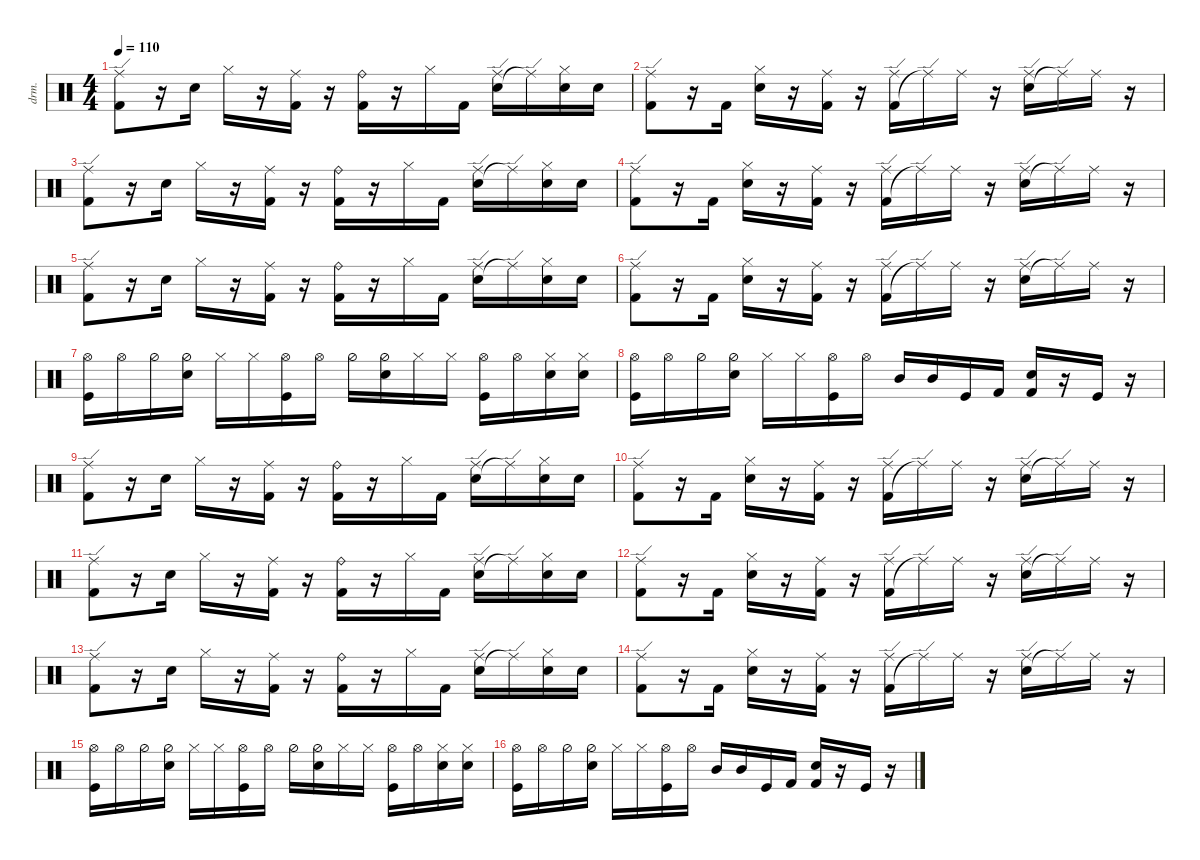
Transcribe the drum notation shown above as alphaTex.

\defaultSystemsLayout 4
\hideDynamics
\bracketExtendMode nobrackets
\otherSystemsTrackNameOrientation horizontal
\track ("Drumkit" "drm.") {instrument percussion}
\staff {score}
\articulation defaults
\ts (4 4)
\tempo 110
\clef neutral
\ks c
("Kick (hit) 2" "Ride (edge)").8{dy mf beam Down} r.16{beam Down} "Snare (hit) 2".16{beam Down} "Hi-Hat (closed)".16{beam Down} r.16{beam Down} ("Kick (hit) 2" "Ride (middle)").16{beam Down} r.16{beam Down} ("Kick (hit) 2" "Ride (bell)").16{beam Down} r.16{beam Down} "Hi-Hat (closed)".16{beam Down} "Kick (hit) 2".16{beam Down} ("Snare (hit) 2" "Ride (edge)").16{beam Down} "Ride (edge)"{t}.16{beam Down} ("Snare (hit) 2" "Hi-Hat (closed)").16{beam Down} "Snare (hit) 2".16{beam Down} |
("Kick (hit) 2" "Ride (edge)").8{beam Down} r.16{beam Down} "Kick (hit) 2".16{beam Down} ("Snare (hit) 2" "Hi-Hat (closed)").16{beam Down} r.16{beam Down} ("Kick (hit) 2" "Ride (middle)").16{beam Down} r.16{beam Down} ("Kick (hit) 2" "Ride (edge)").16{beam Down} "Ride (edge)"{t}.16{beam Down} "Ride (middle)".16{beam Down} r.16{beam Down} ("Snare (hit) 2" "Ride (edge)").16{beam Down} "Ride (edge)"{t}.16{beam Down} "Ride (middle)".16{beam Down} r.16{beam Down} |
("Kick (hit) 2" "Ride (edge)").8{beam Down} r.16{beam Down} "Snare (hit) 2".16{beam Down} "Hi-Hat (closed)".16{beam Down} r.16{beam Down} ("Kick (hit) 2" "Ride (middle)").16{beam Down} r.16{beam Down} ("Kick (hit) 2" "Ride (bell)").16{beam Down} r.16{beam Down} "Hi-Hat (closed)".16{beam Down} "Kick (hit) 2".16{beam Down} ("Snare (hit) 2" "Ride (edge)").16{beam Down} "Ride (edge)"{t}.16{beam Down} ("Snare (hit) 2" "Hi-Hat (closed)").16{beam Down} "Snare (hit) 2".16{beam Down} |
("Kick (hit) 2" "Ride (edge)").8{beam Down} r.16{beam Down} "Kick (hit) 2".16{beam Down} ("Snare (hit) 2" "Hi-Hat (closed)").16{beam Down} r.16{beam Down} ("Kick (hit) 2" "Ride (middle)").16{beam Down} r.16{beam Down} ("Kick (hit) 2" "Ride (edge)").16{beam Down} "Ride (edge)"{t}.16{beam Down} "Ride (middle)".16{beam Down} r.16{beam Down} ("Snare (hit) 2" "Ride (edge)").16{beam Down} "Ride (edge)"{t}.16{beam Down} "Ride (middle)".16{beam Down} r.16{beam Down} |
("Kick (hit) 2" "Ride (edge)").8{beam Down} r.16{beam Down} "Snare (hit) 2".16{beam Down} "Hi-Hat (closed)".16{beam Down} r.16{beam Down} ("Kick (hit) 2" "Ride (middle)").16{beam Down} r.16{beam Down} ("Kick (hit) 2" "Ride (bell)").16{beam Down} r.16{beam Down} "Hi-Hat (closed)".16{beam Down} "Kick (hit) 2".16{beam Down} ("Snare (hit) 2" "Ride (edge)").16{beam Down} "Ride (edge)"{t}.16{beam Down} ("Snare (hit) 2" "Hi-Hat (closed)").16{beam Down} "Snare (hit) 2".16{beam Down} |
("Kick (hit) 2" "Ride (edge)").8{beam Down} r.16{beam Down} "Kick (hit) 2".16{beam Down} ("Snare (hit) 2" "Hi-Hat (closed)").16{beam Down} r.16{beam Down} ("Kick (hit) 2" "Ride (middle)").16{beam Down} r.16{beam Down} ("Kick (hit) 2" "Ride (edge)").16{beam Down} "Ride (edge)"{t}.16{beam Down} "Ride (middle)".16{beam Down} r.16{beam Down} ("Snare (hit) 2" "Ride (edge)").16{beam Down} "Ride (edge)"{t}.16{beam Down} "Ride (middle)".16{beam Down} r.16{beam Down} |
("Hi-Hat (open)" "Kick (hit)").16{beam Down} "Hi-Hat (open)".16{beam Down} "Hi-Hat (half)".16{beam Down} ("Hi-Hat (half)" "Snare (hit) 2").16{beam Down} "Hi-Hat (closed)".16{beam Down} "Hi-Hat (closed)".16{beam Down} ("Hi-Hat (open)" "Kick (hit)").16{beam Down} "Hi-Hat (open)".16{beam Down} "Hi-Hat (half)".16{beam Down} ("Snare (hit) 2" "Hi-Hat (half)").16{beam Down} "Hi-Hat (closed)".16{beam Down} "Hi-Hat (closed)".16{beam Down} ("Hi-Hat (open)" "Kick (hit)").16{beam Down} "Hi-Hat (open)".16{beam Down} ("Snare (hit) 2" "Hi-Hat (closed)").16{beam Down} ("Hi-Hat (closed)" "Snare (hit) 2").16{beam Down} |
("Hi-Hat (open)" "Kick (hit)").16{beam Down} "Hi-Hat (open)".16{beam Down} "Hi-Hat (half)".16{beam Down} ("Hi-Hat (half)" "Snare (hit) 2").16{beam Down} "Hi-Hat (closed)".16{beam Down} "Hi-Hat (closed)".16{beam Down} ("Hi-Hat (open)" "Kick (hit)").16{beam Down} "Hi-Hat (open)".16{beam Down} "Mid Tom (hit)".16{beam Up} "Mid Tom (hit)".16{beam Up} "Kick (hit)".16{beam Up} "Kick (hit) 2".16{beam Up} ("Kick (hit) 2" "Snare (hit) 2").16{beam Up} r.16{beam Up} "Kick (hit)".16{beam Up} r.16{beam Up} |
("Kick (hit) 2" "Ride (edge)").8{beam Down} r.16{beam Down} "Snare (hit) 2".16{beam Down} "Hi-Hat (closed)".16{beam Down} r.16{beam Down} ("Kick (hit) 2" "Ride (middle)").16{beam Down} r.16{beam Down} ("Kick (hit) 2" "Ride (bell)").16{beam Down} r.16{beam Down} "Hi-Hat (closed)".16{beam Down} "Kick (hit) 2".16{beam Down} ("Snare (hit) 2" "Ride (edge)").16{beam Down} "Ride (edge)"{t}.16{beam Down} ("Snare (hit) 2" "Hi-Hat (closed)").16{beam Down} "Snare (hit) 2".16{beam Down} |
("Kick (hit) 2" "Ride (edge)").8{beam Down} r.16{beam Down} "Kick (hit) 2".16{beam Down} ("Snare (hit) 2" "Hi-Hat (closed)").16{beam Down} r.16{beam Down} ("Kick (hit) 2" "Ride (middle)").16{beam Down} r.16{beam Down} ("Kick (hit) 2" "Ride (edge)").16{beam Down} "Ride (edge)"{t}.16{beam Down} "Ride (middle)".16{beam Down} r.16{beam Down} ("Snare (hit) 2" "Ride (edge)").16{beam Down} "Ride (edge)"{t}.16{beam Down} "Ride (middle)".16{beam Down} r.16{beam Down} |
("Kick (hit) 2" "Ride (edge)").8{beam Down} r.16{beam Down} "Snare (hit) 2".16{beam Down} "Hi-Hat (closed)".16{beam Down} r.16{beam Down} ("Kick (hit) 2" "Ride (middle)").16{beam Down} r.16{beam Down} ("Kick (hit) 2" "Ride (bell)").16{beam Down} r.16{beam Down} "Hi-Hat (closed)".16{beam Down} "Kick (hit) 2".16{beam Down} ("Snare (hit) 2" "Ride (edge)").16{beam Down} "Ride (edge)"{t}.16{beam Down} ("Snare (hit) 2" "Hi-Hat (closed)").16{beam Down} "Snare (hit) 2".16{beam Down} |
("Kick (hit) 2" "Ride (edge)").8{beam Down} r.16{beam Down} "Kick (hit) 2".16{beam Down} ("Snare (hit) 2" "Hi-Hat (closed)").16{beam Down} r.16{beam Down} ("Kick (hit) 2" "Ride (middle)").16{beam Down} r.16{beam Down} ("Kick (hit) 2" "Ride (edge)").16{beam Down} "Ride (edge)"{t}.16{beam Down} "Ride (middle)".16{beam Down} r.16{beam Down} ("Snare (hit) 2" "Ride (edge)").16{beam Down} "Ride (edge)"{t}.16{beam Down} "Ride (middle)".16{beam Down} r.16{beam Down} |
("Kick (hit) 2" "Ride (edge)").8{beam Down} r.16{beam Down} "Snare (hit) 2".16{beam Down} "Hi-Hat (closed)".16{beam Down} r.16{beam Down} ("Kick (hit) 2" "Ride (middle)").16{beam Down} r.16{beam Down} ("Kick (hit) 2" "Ride (bell)").16{beam Down} r.16{beam Down} "Hi-Hat (closed)".16{beam Down} "Kick (hit) 2".16{beam Down} ("Snare (hit) 2" "Ride (edge)").16{beam Down} "Ride (edge)"{t}.16{beam Down} ("Snare (hit) 2" "Hi-Hat (closed)").16{beam Down} "Snare (hit) 2".16{beam Down} |
("Kick (hit) 2" "Ride (edge)").8{beam Down} r.16{beam Down} "Kick (hit) 2".16{beam Down} ("Snare (hit) 2" "Hi-Hat (closed)").16{beam Down} r.16{beam Down} ("Kick (hit) 2" "Ride (middle)").16{beam Down} r.16{beam Down} ("Kick (hit) 2" "Ride (edge)").16{beam Down} "Ride (edge)"{t}.16{beam Down} "Ride (middle)".16{beam Down} r.16{beam Down} ("Snare (hit) 2" "Ride (edge)").16{beam Down} "Ride (edge)"{t}.16{beam Down} "Ride (middle)".16{beam Down} r.16{beam Down} |
("Hi-Hat (open)" "Kick (hit)").16{beam Down} "Hi-Hat (open)".16{beam Down} "Hi-Hat (half)".16{beam Down} ("Hi-Hat (half)" "Snare (hit) 2").16{beam Down} "Hi-Hat (closed)".16{beam Down} "Hi-Hat (closed)".16{beam Down} ("Hi-Hat (open)" "Kick (hit)").16{beam Down} "Hi-Hat (open)".16{beam Down} "Hi-Hat (half)".16{beam Down} ("Snare (hit) 2" "Hi-Hat (half)").16{beam Down} "Hi-Hat (closed)".16{beam Down} "Hi-Hat (closed)".16{beam Down} ("Hi-Hat (open)" "Kick (hit)").16{beam Down} "Hi-Hat (open)".16{beam Down} ("Snare (hit) 2" "Hi-Hat (closed)").16{beam Down} ("Hi-Hat (closed)" "Snare (hit) 2").16{beam Down} |
("Hi-Hat (open)" "Kick (hit)").16{beam Down} "Hi-Hat (open)".16{beam Down} "Hi-Hat (half)".16{beam Down} ("Hi-Hat (half)" "Snare (hit) 2").16{beam Down} "Hi-Hat (closed)".16{beam Down} "Hi-Hat (closed)".16{beam Down} ("Hi-Hat (open)" "Kick (hit)").16{beam Down} "Hi-Hat (open)".16{beam Down} "Mid Tom (hit)".16{beam Up} "Mid Tom (hit)".16{beam Up} "Kick (hit)".16{beam Up} "Kick (hit) 2".16{beam Up} ("Kick (hit) 2" "Snare (hit) 2").16{beam Up} r.16{beam Up} "Kick (hit)".16{beam Up} r.16{beam Up}
